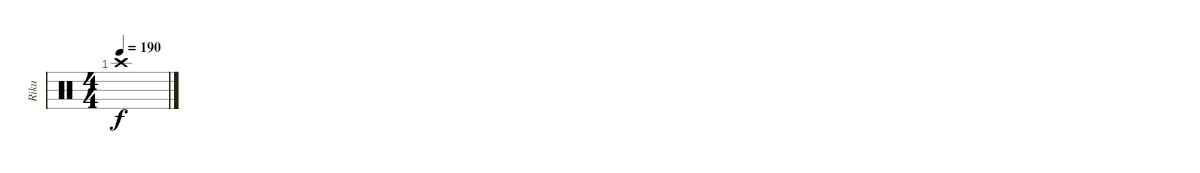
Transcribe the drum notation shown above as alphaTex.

\track ("Riku" "Riku") {instrument percussion}
\staff {score}
\articulation defaults
\ts (4 4)
\tempo 190
\clef neutral
\ks c "Crash high (hit)".1{dy f}
